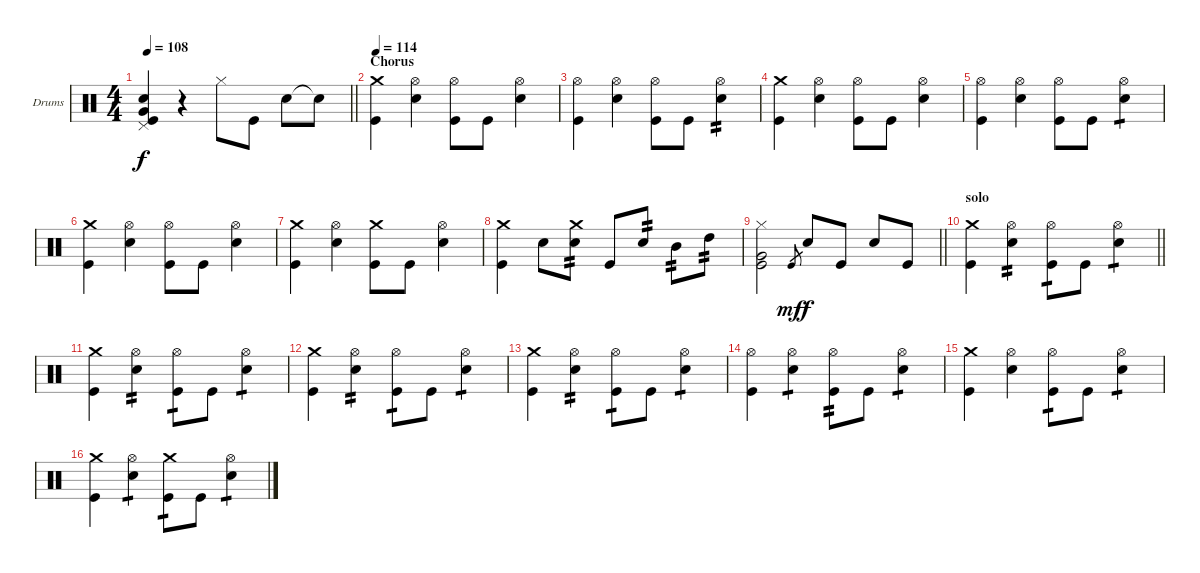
\bracketExtendMode groupsimilarinstruments
\firstSystemTrackNameOrientation horizontal
\otherSystemsTrackNameOrientation horizontal
\track ("Drumkit" "Drums") {instrument percussion}
\staff {score}
\articulation defaults
\ts (4 4)
\tempo 108
\clef neutral
\barLineRight lightlight
\ks c
("Pedal Hi-Hat (hit)" "Snare (hit) 2" "Very Low Tom (hit)" "Kick (hit)").4{dy f} r.4 "Hi-Hat (closed)".8 "Kick (hit)".8 "Snare (hit) 2".8 "Snare (hit) 2"{t}.8 |
\section ("" "Chorus")
\tempo 114
("Crash medium (hit)" "Kick (hit)").4 ("Hi-Hat (open)" "Snare (hit) 2").4 ("Hi-Hat (open)" "Kick (hit)").8 "Kick (hit)".8 ("Hi-Hat (open)" "Snare (hit) 2").4 |
("Hi-Hat (open)" "Kick (hit)").4 ("Hi-Hat (open)" "Snare (hit) 2").4 ("Hi-Hat (open)" "Kick (hit)").8 "Kick (hit)".8 ("Hi-Hat (open)" "Snare (hit) 2").4{tp 2} |
("Crash medium (hit)" "Kick (hit)").4 ("Hi-Hat (open)" "Snare (hit) 2").4 ("Hi-Hat (open)" "Kick (hit)").8 "Kick (hit)".8 ("Hi-Hat (open)" "Snare (hit) 2").4 |
("Hi-Hat (open)" "Kick (hit)").4 ("Hi-Hat (open)" "Snare (hit) 2").4 ("Hi-Hat (open)" "Kick (hit)").8 "Kick (hit)".8 ("Hi-Hat (open)" "Snare (hit) 2").4{tp 1} |
("Crash medium (hit)" "Kick (hit)").4 ("Hi-Hat (open)" "Snare (hit) 2").4 ("Hi-Hat (open)" "Kick (hit)").8 "Kick (hit)".8 ("Hi-Hat (open)" "Snare (hit) 2").4 |
("Crash medium (hit)" "Kick (hit)").4 ("Hi-Hat (open)" "Snare (hit) 2").4 ("Crash medium (hit)" "Kick (hit)").8 "Kick (hit)".8 ("Hi-Hat (open)" "Snare (hit) 2").4 |
("Crash medium (hit)" "Kick (hit)").4 "Snare (hit) 2".8 ("Crash medium (hit)" "Snare (hit) 2").8{tp 2} "Kick (hit)".8 "Snare (hit) 2".8{tp 2} "Mid Tom (hit)".8{tp 2} "High Tom (hit)".8{tp 2} |
\barLineRight lightlight
("Hi-Hat (closed)" "Very Low Tom (hit)" "Kick (hit)").2 "Kick (hit)".8{gr dy mf} "Snare (hit) 2".8{dy f} "Kick (hit)".8 "Snare (hit) 2".8 "Kick (hit)".8 |
\section ("" "solo")
\barLineRight lightlight
("Crash medium (hit)" "Kick (hit)").4 ("Hi-Hat (open)" "Snare (hit) 2").4{tp 2} ("Hi-Hat (open)" "Kick (hit)").8{tp 1} "Kick (hit)".8 ("Hi-Hat (open)" "Snare (hit) 2").4{tp 1} |
("Crash medium (hit)" "Kick (hit)").4 ("Hi-Hat (open)" "Snare (hit) 2").4{tp 2} ("Hi-Hat (open)" "Kick (hit)").8{tp 1} "Kick (hit)".8 ("Hi-Hat (open)" "Snare (hit) 2").4{tp 1} |
("Crash medium (hit)" "Kick (hit)").4 ("Hi-Hat (open)" "Snare (hit) 2").4{tp 2} ("Hi-Hat (open)" "Kick (hit)").8{tp 1} "Kick (hit)".8 ("Hi-Hat (open)" "Snare (hit) 2").4{tp 1} |
("Crash medium (hit)" "Kick (hit)").4 ("Hi-Hat (open)" "Snare (hit) 2").4{tp 2} ("Hi-Hat (open)" "Kick (hit)").8{tp 1} "Kick (hit)".8 ("Hi-Hat (open)" "Snare (hit) 2").4{tp 1} |
("Hi-Hat (open)" "Kick (hit)").4 ("Hi-Hat (open)" "Snare (hit) 2").4{tp 1} ("Hi-Hat (open)" "Kick (hit)").8{tp 2} "Kick (hit)".8 ("Hi-Hat (open)" "Snare (hit) 2").4{tp 1} |
("Crash medium (hit)" "Kick (hit)").4 ("Hi-Hat (open)" "Snare (hit) 2").4 ("Hi-Hat (open)" "Kick (hit)").8{tp 1} "Kick (hit)".8 ("Hi-Hat (open)" "Snare (hit) 2").4{tp 1} |
("Crash medium (hit)" "Kick (hit)").4 ("Hi-Hat (open)" "Snare (hit) 2").4{tp 1} ("Crash medium (hit)" "Kick (hit)").8{tp 1} "Kick (hit)".8 ("Hi-Hat (open)" "Snare (hit) 2").4{tp 1}
